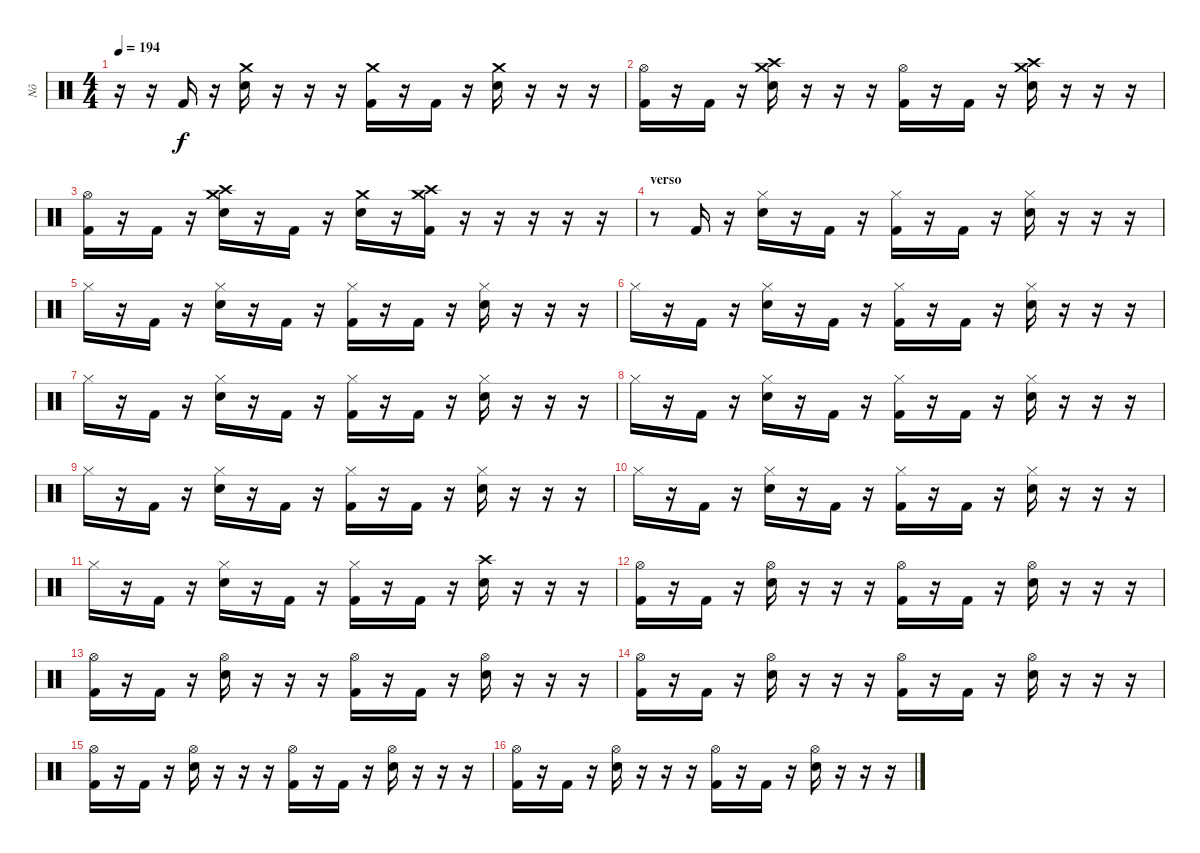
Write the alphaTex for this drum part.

\track ("Nô" "Nô") {instrument percussion}
\staff {score}
\articulation defaults
\ts (4 4)
\tempo 194
\clef neutral
\ks c
r.16{dy f} r.16 "Kick (hit) 2".16 r.16 ("Crash medium (hit)" "Electric Snare (hit)").16 r.16 r.16 r.16 ("Crash medium (hit)" "Kick (hit) 2").16 r.16 "Kick (hit) 2".16 r.16 ("Crash medium (hit)" "Electric Snare (hit)").16 r.16 r.16 r.16 |
("Hi-Hat (open)" "Kick (hit) 2").16 r.16 "Kick (hit) 2".16 r.16 ("Crash medium (hit)" "Crash high (hit)" "Electric Snare (hit)").16 r.16 r.16 r.16 ("Hi-Hat (open)" "Kick (hit) 2").16 r.16 "Kick (hit) 2".16 r.16 ("Crash medium (hit)" "Crash high (hit)" "Electric Snare (hit)").16 r.16 r.16 r.16 |
("Hi-Hat (open)" "Kick (hit) 2").16 r.16 "Kick (hit) 2".16 r.16 ("Crash medium (hit)" "Crash high (hit)" "Electric Snare (hit)").16 r.16 "Kick (hit) 2".16 r.16 ("Crash medium (hit)" "Electric Snare (hit)").16 r.16 ("Crash high (hit)" "Crash medium (hit)" "Kick (hit) 2").16 r.16 r.16 r.16 r.16 r.16 |
\section ("" "verso")
r.8 "Kick (hit) 2".16 r.16 ("Hi-Hat (closed)" "Electric Snare (hit)").16 r.16 "Kick (hit) 2".16 r.16 ("Hi-Hat (closed)" "Kick (hit) 2").16 r.16 "Kick (hit) 2".16 r.16 ("Hi-Hat (closed)" "Electric Snare (hit)").16 r.16 r.16 r.16 |
"Hi-Hat (closed)".16 r.16 "Kick (hit) 2".16 r.16 ("Hi-Hat (closed)" "Electric Snare (hit)").16 r.16 "Kick (hit) 2".16 r.16 ("Hi-Hat (closed)" "Kick (hit) 2").16 r.16 "Kick (hit) 2".16 r.16 ("Hi-Hat (closed)" "Electric Snare (hit)").16 r.16 r.16 r.16 |
"Hi-Hat (closed)".16 r.16 "Kick (hit) 2".16 r.16 ("Hi-Hat (closed)" "Electric Snare (hit)").16 r.16 "Kick (hit) 2".16 r.16 ("Hi-Hat (closed)" "Kick (hit) 2").16 r.16 "Kick (hit) 2".16 r.16 ("Hi-Hat (closed)" "Electric Snare (hit)").16 r.16 r.16 r.16 |
"Hi-Hat (closed)".16 r.16 "Kick (hit) 2".16 r.16 ("Hi-Hat (closed)" "Electric Snare (hit)").16 r.16 "Kick (hit) 2".16 r.16 ("Hi-Hat (closed)" "Kick (hit) 2").16 r.16 "Kick (hit) 2".16 r.16 ("Hi-Hat (closed)" "Electric Snare (hit)").16 r.16 r.16 r.16 |
"Hi-Hat (closed)".16 r.16 "Kick (hit) 2".16 r.16 ("Hi-Hat (closed)" "Electric Snare (hit)").16 r.16 "Kick (hit) 2".16 r.16 ("Hi-Hat (closed)" "Kick (hit) 2").16 r.16 "Kick (hit) 2".16 r.16 ("Hi-Hat (closed)" "Electric Snare (hit)").16 r.16 r.16 r.16 |
"Hi-Hat (closed)".16 r.16 "Kick (hit) 2".16 r.16 ("Hi-Hat (closed)" "Electric Snare (hit)").16 r.16 "Kick (hit) 2".16 r.16 ("Hi-Hat (closed)" "Kick (hit) 2").16 r.16 "Kick (hit) 2".16 r.16 ("Hi-Hat (closed)" "Electric Snare (hit)").16 r.16 r.16 r.16 |
"Hi-Hat (closed)".16 r.16 "Kick (hit) 2".16 r.16 ("Hi-Hat (closed)" "Electric Snare (hit)").16 r.16 "Kick (hit) 2".16 r.16 ("Hi-Hat (closed)" "Kick (hit) 2").16 r.16 "Kick (hit) 2".16 r.16 ("Hi-Hat (closed)" "Electric Snare (hit)").16 r.16 r.16 r.16 |
"Hi-Hat (closed)".16 r.16 "Kick (hit) 2".16 r.16 ("Hi-Hat (closed)" "Electric Snare (hit)").16 r.16 "Kick (hit) 2".16 r.16 ("Hi-Hat (closed)" "Kick (hit) 2").16 r.16 "Kick (hit) 2".16 r.16 ("Crash high (hit)" "Electric Snare (hit)").16 r.16 r.16 r.16 |
("Hi-Hat (open)" "Kick (hit) 2").16 r.16 "Kick (hit) 2".16 r.16 ("Hi-Hat (open)" "Electric Snare (hit)").16 r.16 r.16 r.16 ("Hi-Hat (open)" "Kick (hit) 2").16 r.16 "Kick (hit) 2".16 r.16 ("Hi-Hat (open)" "Electric Snare (hit)").16 r.16 r.16 r.16 |
("Hi-Hat (open)" "Kick (hit) 2").16 r.16 "Kick (hit) 2".16 r.16 ("Hi-Hat (open)" "Electric Snare (hit)").16 r.16 r.16 r.16 ("Hi-Hat (open)" "Kick (hit) 2").16 r.16 "Kick (hit) 2".16 r.16 ("Hi-Hat (open)" "Electric Snare (hit)").16 r.16 r.16 r.16 |
("Hi-Hat (open)" "Kick (hit) 2").16 r.16 "Kick (hit) 2".16 r.16 ("Hi-Hat (open)" "Electric Snare (hit)").16 r.16 r.16 r.16 ("Hi-Hat (open)" "Kick (hit) 2").16 r.16 "Kick (hit) 2".16 r.16 ("Hi-Hat (open)" "Electric Snare (hit)").16 r.16 r.16 r.16 |
("Hi-Hat (open)" "Kick (hit) 2").16 r.16 "Kick (hit) 2".16 r.16 ("Hi-Hat (open)" "Electric Snare (hit)").16 r.16 r.16 r.16 ("Hi-Hat (open)" "Kick (hit) 2").16 r.16 "Kick (hit) 2".16 r.16 ("Hi-Hat (open)" "Electric Snare (hit)").16 r.16 r.16 r.16 |
("Hi-Hat (open)" "Kick (hit) 2").16 r.16 "Kick (hit) 2".16 r.16 ("Hi-Hat (open)" "Electric Snare (hit)").16 r.16 r.16 r.16 ("Hi-Hat (open)" "Kick (hit) 2").16 r.16 "Kick (hit) 2".16 r.16 ("Hi-Hat (open)" "Electric Snare (hit)").16 r.16 r.16 r.16
